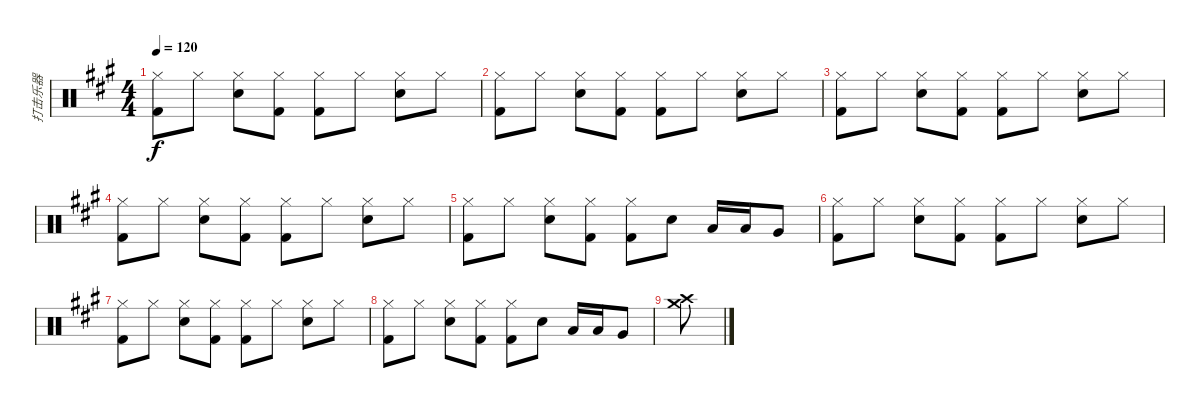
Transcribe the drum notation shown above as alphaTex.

\track ("打击乐器" "打击乐器") {instrument percussion}
\staff {score}
\articulation defaults
\ts (4 4)
\tempo 120
\clef neutral
\ks a
("Hi-Hat (closed)" "Kick (hit) 2").8{dy f} "Hi-Hat (closed)".8 ("Hi-Hat (closed)" "Electric Snare (hit)").8 ("Hi-Hat (closed)" "Kick (hit) 2").8 ("Hi-Hat (closed)" "Kick (hit) 2").8 "Hi-Hat (closed)".8 ("Hi-Hat (closed)" "Electric Snare (hit)").8 "Hi-Hat (closed)".8 |
("Hi-Hat (closed)" "Kick (hit) 2").8 "Hi-Hat (closed)".8 ("Hi-Hat (closed)" "Electric Snare (hit)").8 ("Hi-Hat (closed)" "Kick (hit) 2").8 ("Hi-Hat (closed)" "Kick (hit) 2").8 "Hi-Hat (closed)".8 ("Hi-Hat (closed)" "Electric Snare (hit)").8 "Hi-Hat (closed)".8 |
("Hi-Hat (closed)" "Kick (hit) 2").8 "Hi-Hat (closed)".8 ("Hi-Hat (closed)" "Electric Snare (hit)").8 ("Hi-Hat (closed)" "Kick (hit) 2").8 ("Hi-Hat (closed)" "Kick (hit) 2").8 "Hi-Hat (closed)".8 ("Hi-Hat (closed)" "Electric Snare (hit)").8 "Hi-Hat (closed)".8 |
("Hi-Hat (closed)" "Kick (hit) 2").8 "Hi-Hat (closed)".8 ("Hi-Hat (closed)" "Electric Snare (hit)").8 ("Hi-Hat (closed)" "Kick (hit) 2").8 ("Hi-Hat (closed)" "Kick (hit) 2").8 "Hi-Hat (closed)".8 ("Hi-Hat (closed)" "Electric Snare (hit)").8 "Hi-Hat (closed)".8 |
("Hi-Hat (closed)" "Kick (hit) 2").8 "Hi-Hat (closed)".8 ("Hi-Hat (closed)" "Electric Snare (hit)").8 ("Hi-Hat (closed)" "Kick (hit) 2").8 ("Hi-Hat (closed)" "Kick (hit) 2").8 "Electric Snare (hit)".8 "Low Tom (hit)".16 "Low Tom (hit)".16 "Very Low Tom (hit)".8 |
("Hi-Hat (closed)" "Kick (hit) 2").8 "Hi-Hat (closed)".8 ("Hi-Hat (closed)" "Electric Snare (hit)").8 ("Hi-Hat (closed)" "Kick (hit) 2").8 ("Hi-Hat (closed)" "Kick (hit) 2").8 "Hi-Hat (closed)".8 ("Hi-Hat (closed)" "Electric Snare (hit)").8 "Hi-Hat (closed)".8 |
("Hi-Hat (closed)" "Kick (hit) 2").8 "Hi-Hat (closed)".8 ("Hi-Hat (closed)" "Electric Snare (hit)").8 ("Hi-Hat (closed)" "Kick (hit) 2").8 ("Hi-Hat (closed)" "Kick (hit) 2").8 "Hi-Hat (closed)".8 ("Hi-Hat (closed)" "Electric Snare (hit)").8 "Hi-Hat (closed)".8 |
("Hi-Hat (closed)" "Kick (hit) 2").8 "Hi-Hat (closed)".8 ("Hi-Hat (closed)" "Electric Snare (hit)").8 ("Hi-Hat (closed)" "Kick (hit) 2").8 ("Hi-Hat (closed)" "Kick (hit) 2").8 "Electric Snare (hit)".8 "Low Tom (hit)".16 "Low Tom (hit)".16 "Very Low Tom (hit)".8 |
("Crash high (hit)" "Crash medium (hit)").8
